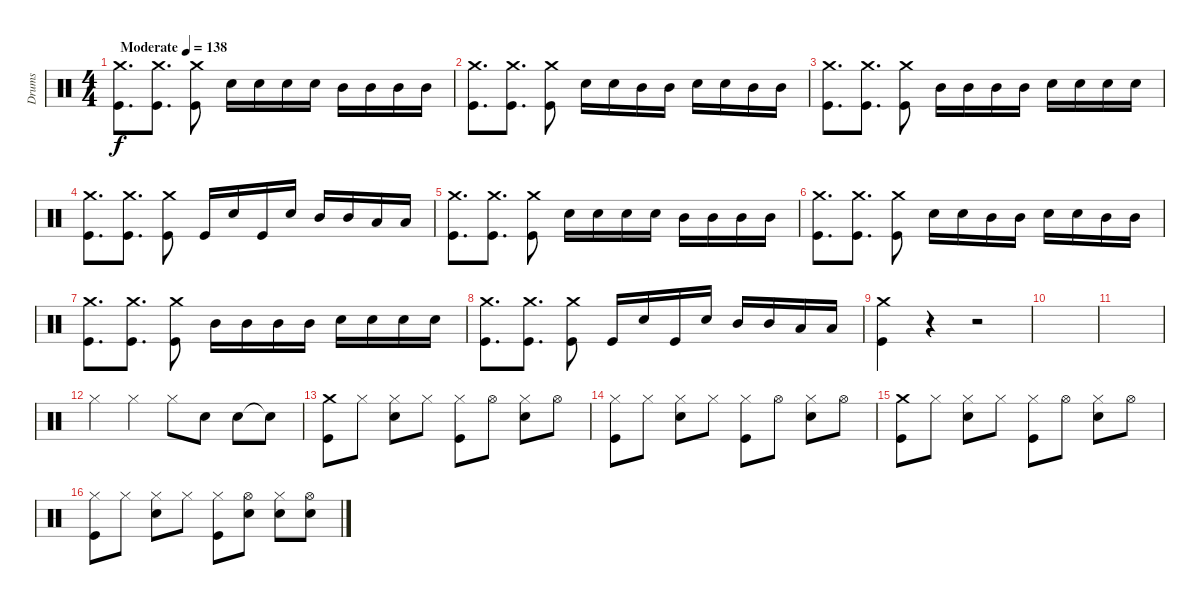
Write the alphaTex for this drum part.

\track ("Drums" "Drums") {instrument percussion}
\staff {score}
\articulation defaults
\ts (4 4)
\tempo (138 "Moderate")
\clef neutral
\ks c
("Crash medium (hit)" "Kick (hit)").8{d dy f} ("Crash medium (hit)" "Kick (hit)").8{d} ("Crash medium (hit)" "Kick (hit)").8 "Snare (hit) 2".16 "Snare (hit) 2".16 "Snare (hit) 2".16 "Snare (hit) 2".16 "Mid Tom (hit)".16 "Mid Tom (hit)".16 "Mid Tom (hit)".16 "Mid Tom (hit)".16 |
("Crash medium (hit)" "Kick (hit)").8{d} ("Crash medium (hit)" "Kick (hit)").8{d} ("Crash medium (hit)" "Kick (hit)").8 "Snare (hit) 2".16 "Snare (hit) 2".16 "Mid Tom (hit)".16 "Mid Tom (hit)".16 "Snare (hit) 2".16 "Snare (hit) 2".16 "Mid Tom (hit)".16 "Mid Tom (hit)".16 |
("Crash medium (hit)" "Kick (hit)").8{d} ("Crash medium (hit)" "Kick (hit)").8{d} ("Crash medium (hit)" "Kick (hit)").8 "Mid Tom (hit)".16 "Mid Tom (hit)".16 "Mid Tom (hit)".16 "Mid Tom (hit)".16 "Snare (hit) 2".16 "Snare (hit) 2".16 "Snare (hit) 2".16 "Snare (hit) 2".16 |
("Crash medium (hit)" "Kick (hit)").8{d} ("Crash medium (hit)" "Kick (hit)").8{d} ("Crash medium (hit)" "Kick (hit)").8 "Kick (hit)".16 "Snare (hit) 2".16 "Kick (hit)".16 "Snare (hit) 2".16 "Mid Tom (hit)".16 "Mid Tom (hit)".16 "Low Tom (hit)".16 "Low Tom (hit)".16 |
("Crash medium (hit)" "Kick (hit)").8{d} ("Crash medium (hit)" "Kick (hit)").8{d} ("Crash medium (hit)" "Kick (hit)").8 "Snare (hit) 2".16 "Snare (hit) 2".16 "Snare (hit) 2".16 "Snare (hit) 2".16 "Mid Tom (hit)".16 "Mid Tom (hit)".16 "Mid Tom (hit)".16 "Mid Tom (hit)".16 |
("Crash medium (hit)" "Kick (hit)").8{d} ("Crash medium (hit)" "Kick (hit)").8{d} ("Crash medium (hit)" "Kick (hit)").8 "Snare (hit) 2".16 "Snare (hit) 2".16 "Mid Tom (hit)".16 "Mid Tom (hit)".16 "Snare (hit) 2".16 "Snare (hit) 2".16 "Mid Tom (hit)".16 "Mid Tom (hit)".16 |
("Crash medium (hit)" "Kick (hit)").8{d} ("Crash medium (hit)" "Kick (hit)").8{d} ("Crash medium (hit)" "Kick (hit)").8 "Mid Tom (hit)".16 "Mid Tom (hit)".16 "Mid Tom (hit)".16 "Mid Tom (hit)".16 "Snare (hit) 2".16 "Snare (hit) 2".16 "Snare (hit) 2".16 "Snare (hit) 2".16 |
("Crash medium (hit)" "Kick (hit)").8{d} ("Crash medium (hit)" "Kick (hit)").8{d} ("Crash medium (hit)" "Kick (hit)").8 "Kick (hit)".16 "Snare (hit) 2".16 "Kick (hit)".16 "Snare (hit) 2".16 "Mid Tom (hit)".16 "Mid Tom (hit)".16 "Low Tom (hit)".16 "Low Tom (hit)".16 |
("Crash medium (hit)" "Kick (hit)").4 r.4 r.2 |
|
|
"Hi-Hat (closed)".4 "Hi-Hat (closed)".4 "Hi-Hat (closed)".8 "Electric Snare (hit)".8 "Electric Snare (hit)".8 "Snare (hit)"{t}.8 |
("Crash medium (hit)" "Kick (hit)").8 "Hi-Hat (closed)".8 ("Hi-Hat (closed)" "Electric Snare (hit)").8 "Hi-Hat (closed)".8 ("Hi-Hat (closed)" "Kick (hit)").8 "Hi-Hat (open)".8 ("Hi-Hat (closed)" "Electric Snare (hit)").8 "Hi-Hat (open)".8 |
("Hi-Hat (closed)" "Kick (hit)").8 "Hi-Hat (closed)".8 ("Hi-Hat (closed)" "Electric Snare (hit)").8 "Hi-Hat (closed)".8 ("Hi-Hat (closed)" "Kick (hit)").8 "Hi-Hat (open)".8 ("Hi-Hat (closed)" "Electric Snare (hit)").8 "Hi-Hat (open)".8 |
("Crash medium (hit)" "Kick (hit)").8 "Hi-Hat (closed)".8 ("Hi-Hat (closed)" "Electric Snare (hit)").8 "Hi-Hat (closed)".8 ("Hi-Hat (closed)" "Kick (hit)").8 "Hi-Hat (open)".8 ("Hi-Hat (closed)" "Electric Snare (hit)").8 "Hi-Hat (open)".8 |
("Hi-Hat (closed)" "Kick (hit)").8 "Hi-Hat (closed)".8 ("Hi-Hat (closed)" "Electric Snare (hit)").8 "Hi-Hat (closed)".8 ("Hi-Hat (closed)" "Kick (hit)").8 ("Hi-Hat (open)" "Electric Snare (hit)").8 ("Hi-Hat (closed)" "Electric Snare (hit)").8 ("Hi-Hat (open)" "Electric Snare (hit)").8
